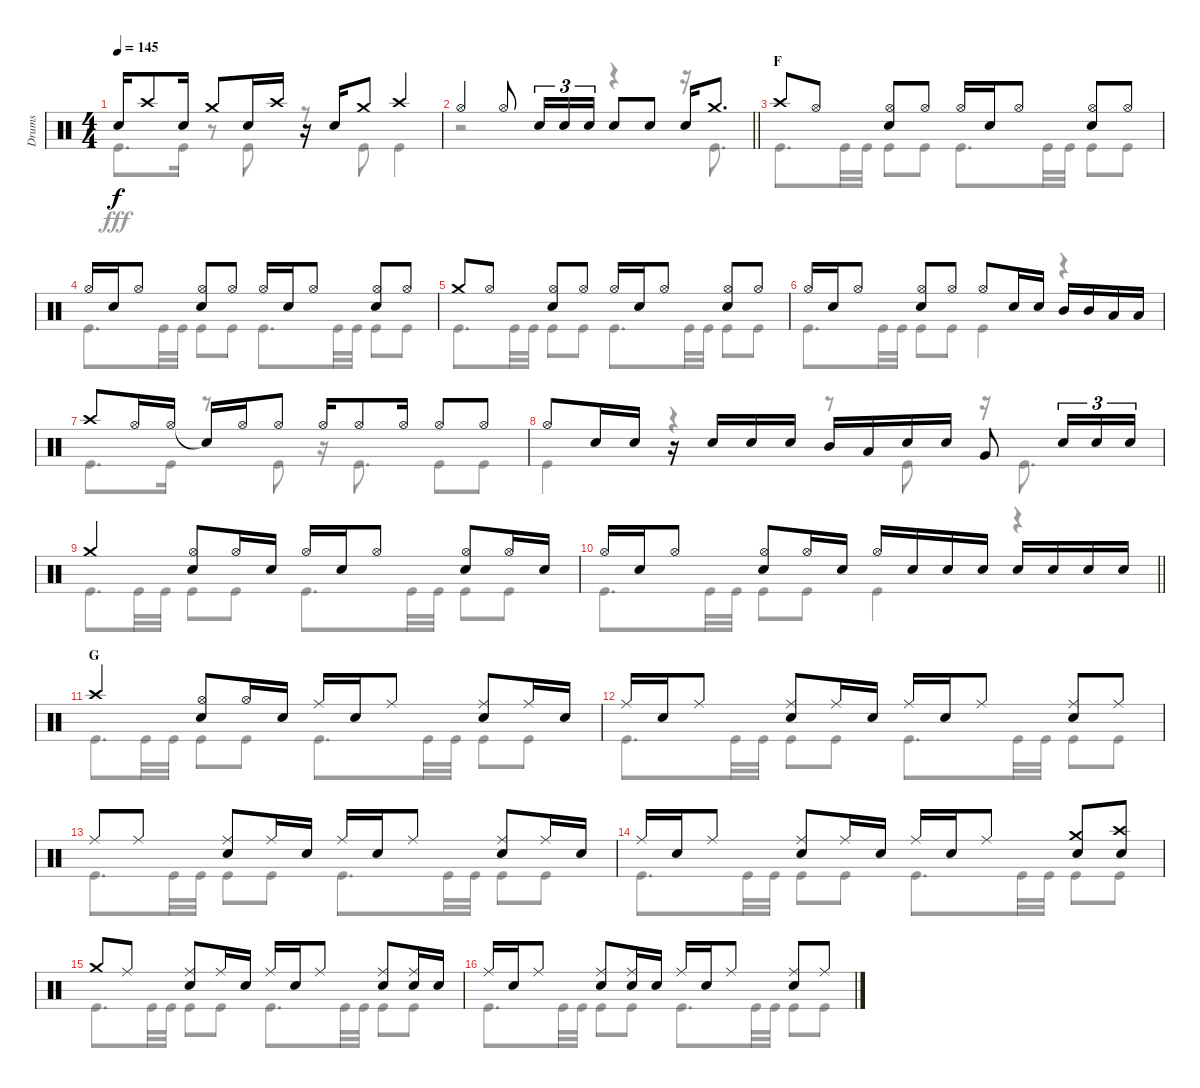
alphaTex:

\track ("Drums" "Drums") {instrument percussion}
\staff {score}
\articulation defaults
\voice
\ts (4 4)
\tempo 145
\clef neutral
\ks c "Snare (hit) 2".16{dy f} "Crash high (hit)".8 "Snare (hit) 2".16 "Crash medium (hit)".8 "Snare (hit) 2".16 "Crash high (hit)".16
r.16 "Snare (hit) 2".16 "Crash medium (hit)".8 "Crash high (hit)".4 |
\barLineRight lightlight "Hi-Hat (open)".4 "Hi-Hat (open)".8 "Snare (hit) 2".16{tu (3 2)} "Snare (hit) 2".16{tu (3 2)} "Snare (hit) 2".16{tu (3 2)} "Snare (hit) 2".8 "Snare (hit) 2".8 "Snare (hit) 2".16 "Crash medium (hit)".8{d}
|
\section ("" "F")
"Crash high (hit)".8 "Hi-Hat (open)".8 ("Hi-Hat (open)" "Snare (hit) 2").8 "Hi-Hat (open)".8 "Hi-Hat (open)".16 "Snare (hit) 2".16 "Hi-Hat (open)".8 ("Hi-Hat (open)" "Snare (hit) 2").8 "Hi-Hat (open)".8 |
"Hi-Hat (open)".16 "Snare (hit) 2".16 "Hi-Hat (open)".8 ("Hi-Hat (open)" "Snare (hit) 2").8 "Hi-Hat (open)".8 "Hi-Hat (open)".16 "Snare (hit) 2".16 "Hi-Hat (open)".8 ("Hi-Hat (open)" "Snare (hit) 2").8 "Hi-Hat (open)".8 |
"Crash medium (hit)".8 "Hi-Hat (open)".8 ("Hi-Hat (open)" "Snare (hit) 2").8 "Hi-Hat (open)".8 "Hi-Hat (open)".16 "Snare (hit) 2".16 "Hi-Hat (open)".8 ("Hi-Hat (open)" "Snare (hit) 2").8 "Hi-Hat (open)".8 |
"Hi-Hat (open)".16 "Snare (hit) 2".16 "Hi-Hat (open)".8 ("Hi-Hat (open)" "Snare (hit) 2").8 "Hi-Hat (open)".8 "Hi-Hat (open)".8 "Snare (hit) 2".16 "Snare (hit) 2".16 "Mid Tom (hit)".16 "Mid Tom (hit)".16 "Low Tom (hit)".16 "Low Tom (hit)".16 |
"Crash high (hit)".8 "Hi-Hat (open)".16 "Hi-Hat (open)".16 "Snare (hit)"{t}.16 "Hi-Hat (open)".16 "Hi-Hat (open)".8 "Hi-Hat (open)".16 "Hi-Hat (open)".8 "Hi-Hat (open)".16 "Hi-Hat (open)".8 "Hi-Hat (open)".8 |
"Hi-Hat (open)".8 "Snare (hit) 2".16 "Snare (hit) 2".16 r.16 "Snare (hit) 2".16 "Snare (hit) 2".16 "Snare (hit) 2".16 "Mid Tom (hit)".16 "Low Tom (hit)".16 "Snare (hit) 2".16 "Snare (hit) 2".16 "Very Low Tom (hit)".8 "Snare (hit) 2".16{tu (3 2)} "Snare (hit) 2".16{tu (3 2)} "Snare (hit) 2".16{tu (3 2)} |
"Crash medium (hit)".4 ("Hi-Hat (open)" "Snare (hit) 2").8 "Hi-Hat (open)".16 "Snare (hit) 2".16 "Hi-Hat (open)".16 "Snare (hit) 2".16 "Hi-Hat (open)".8 ("Hi-Hat (open)" "Snare (hit) 2").8 "Hi-Hat (open)".16 "Snare (hit) 2".16 |
\barLineRight lightlight "Hi-Hat (open)".16 "Snare (hit) 2".16 "Hi-Hat (open)".8
("Hi-Hat (open)" "Snare (hit) 2").8 "Hi-Hat (open)".16 "Snare (hit) 2".16 "Hi-Hat (open)".16 "Snare (hit) 2".16 "Snare (hit) 2".16 "Snare (hit) 2".16 "Snare (hit) 2".16 "Snare (hit) 2".16 "Snare (hit) 2".16 "Snare (hit) 2".16 |
\section ("" "G")
"Crash high (hit)".4 ("Hi-Hat (open)" "Snare (hit) 2").8 "Hi-Hat (open)".16 "Snare (hit) 2".16 "Ride (middle)".16 "Snare (hit) 2".16 "Ride (middle)".8 ("Ride (middle)" "Snare (hit) 2").8 "Ride (middle)".16 "Snare (hit) 2".16 |
"Ride (middle)".16 "Snare (hit) 2".16 "Ride (middle)".8 ("Ride (middle)" "Snare (hit) 2").8 "Ride (middle)".16 "Snare (hit) 2".16 "Ride (middle)".16 "Snare (hit) 2".16 "Ride (middle)".8 ("Ride (middle)" "Snare (hit) 2").8 "Ride (middle)".8 |
"Ride (middle)".8 "Ride (middle)".8 ("Ride (middle)" "Snare (hit) 2").8 "Ride (middle)".16 "Snare (hit) 2".16 "Ride (middle)".16 "Snare (hit) 2".16 "Ride (middle)".8 ("Ride (middle)" "Snare (hit) 2").8 "Ride (middle)".16 "Snare (hit) 2".16 |
"Ride (middle)".16 "Snare (hit) 2".16 "Ride (middle)".8 ("Ride (middle)" "Snare (hit) 2").8 "Ride (middle)".16 "Snare (hit) 2".16 "Ride (middle)".16 "Snare (hit) 2".16 "Ride (middle)".8 ("Crash medium (hit)" "Snare (hit) 2").8 ("Crash high (hit)" "Snare (hit) 2").8 |
"Crash medium (hit)".8 "Ride (middle)".8 ("Ride (middle)" "Snare (hit) 2").8 "Ride (middle)".16 "Snare (hit) 2".16 "Ride (middle)".16 "Snare (hit) 2".16 "Ride (middle)".8 ("Ride (middle)" "Snare (hit) 2").8 ("Ride (middle)" "Snare (hit) 2").16 "Snare (hit) 2".16 |
"Ride (middle)".16 "Snare (hit) 2".16 "Ride (middle)".8 ("Ride (middle)" "Snare (hit) 2").8 ("Ride (middle)" "Snare (hit) 2").16 "Snare (hit) 2".16 "Ride (middle)".16 "Snare (hit) 2".16 "Ride (middle)".8 ("Ride (middle)" "Snare (hit) 2").8 "Ride (middle)".8
\voice
\clef neutral
\ottava regular
\simile none
\ks c "Kick (hit)".8{d dy fff} "Kick (hit)".16
r.8 "Kick (hit)".8 r.8 "Kick (hit)".8 "Kick (hit)".4 |
\barLineRight lightlight
r.2 r.4 r.16 "Kick (hit)".8{d} |
"Kick (hit)".8{d} "Kick (hit)".32 "Kick (hit)".32 "Kick (hit)".8 "Kick (hit)".8 "Kick (hit)".8{d} "Kick (hit)".32 "Kick (hit)".32 "Kick (hit)".8 "Kick (hit)".8 |
"Kick (hit)".8{d} "Kick (hit)".32 "Kick (hit)".32 "Kick (hit)".8 "Kick (hit)".8 "Kick (hit)".8{d} "Kick (hit)".32 "Kick (hit)".32 "Kick (hit)".8 "Kick (hit)".8 |
"Kick (hit)".8{d} "Kick (hit)".32 "Kick (hit)".32 "Kick (hit)".8 "Kick (hit)".8 "Kick (hit)".8{d} "Kick (hit)".32 "Kick (hit)".32 "Kick (hit)".8 "Kick (hit)".8 |
"Kick (hit)".8{d} "Kick (hit)".32 "Kick (hit)".32 "Kick (hit)".8 "Kick (hit)".8 "Kick (hit)".4 r.4 |
"Kick (hit)".8{d} "Kick (hit)".16 r.8 "Kick (hit)".8 r.16 "Kick (hit)".8{d} "Kick (hit)".8 "Kick (hit)".8 |
"Kick (hit)".4 r.4 r.8 "Kick (hit)".8 r.16 "Kick (hit)".8{d} |
"Kick (hit)".8{d} "Kick (hit)".32 "Kick (hit)".32 "Kick (hit)".8 "Kick (hit)".8 "Kick (hit)".8{d} "Kick (hit)".32 "Kick (hit)".32 "Kick (hit)".8 "Kick (hit)".8 |
\barLineRight lightlight "Kick (hit)".8{d} "Kick (hit)".32 "Kick (hit)".32 "Kick (hit)".8 "Kick (hit)".8 "Kick (hit)".4
r.4 |
"Kick (hit)".8{d} "Kick (hit)".32 "Kick (hit)".32 "Kick (hit)".8 "Kick (hit)".8 "Kick (hit)".8{d} "Kick (hit)".32 "Kick (hit)".32 "Kick (hit)".8 "Kick (hit)".8 |
"Kick (hit)".8{d} "Kick (hit)".32 "Kick (hit)".32 "Kick (hit)".8 "Kick (hit)".8 "Kick (hit)".8{d} "Kick (hit)".32 "Kick (hit)".32 "Kick (hit)".8 "Kick (hit)".8 |
"Kick (hit)".8{d} "Kick (hit)".32 "Kick (hit)".32 "Kick (hit)".8 "Kick (hit)".8 "Kick (hit)".8{d} "Kick (hit)".32 "Kick (hit)".32 "Kick (hit)".8 "Kick (hit)".8 |
"Kick (hit)".8{d} "Kick (hit)".32 "Kick (hit)".32 "Kick (hit)".8 "Kick (hit)".8 "Kick (hit)".8{d} "Kick (hit)".32 "Kick (hit)".32 "Kick (hit)".8 "Kick (hit)".8 |
"Kick (hit)".8{d} "Kick (hit)".32 "Kick (hit)".32 "Kick (hit)".8 "Kick (hit)".8 "Kick (hit)".8{d} "Kick (hit)".32 "Kick (hit)".32 "Kick (hit)".8 "Kick (hit)".8 |
"Kick (hit)".8{d} "Kick (hit)".32 "Kick (hit)".32 "Kick (hit)".8 "Kick (hit)".8 "Kick (hit)".8{d} "Kick (hit)".32 "Kick (hit)".32 "Kick (hit)".8 "Kick (hit)".8
